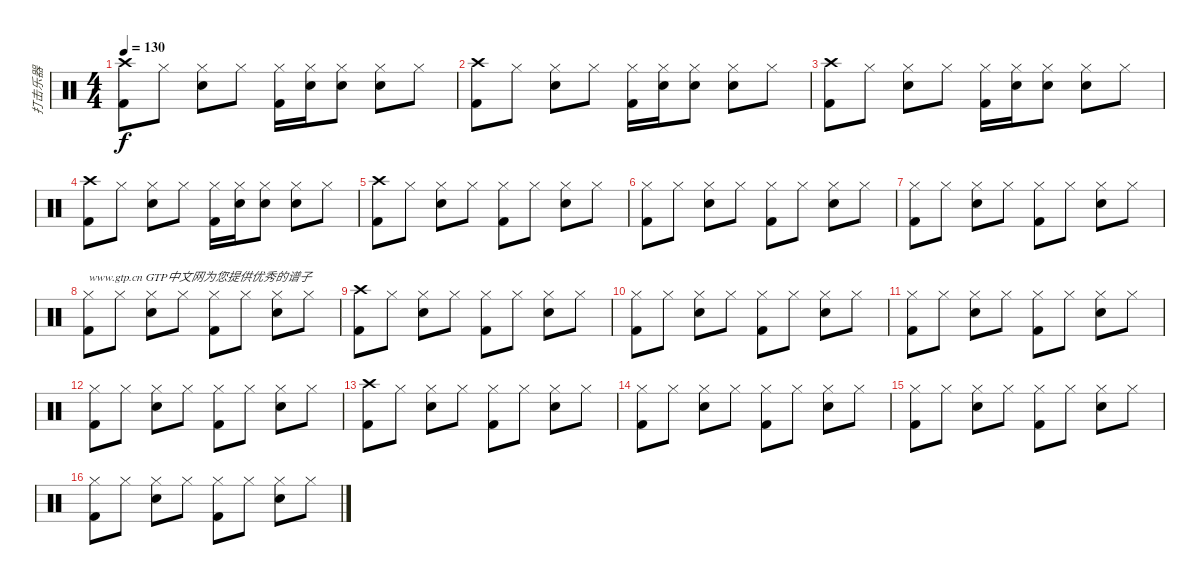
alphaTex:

\track ("打击乐器" "打击乐器") {instrument percussion}
\staff {score}
\articulation defaults
\ts (4 4)
\tempo 130
\clef neutral
\ks c
("Kick (hit) 2" "Crash high (hit)").8{dy f} "Hi-Hat (closed)".8 ("Snare (hit) 2" "Hi-Hat (closed)").8 "Hi-Hat (closed)".8 ("Kick (hit) 2" "Hi-Hat (closed)").16 ("Snare (hit) 2" "Hi-Hat (closed)").16 ("Snare (hit) 2" "Hi-Hat (closed)").8 ("Snare (hit) 2" "Hi-Hat (closed)").8 "Hi-Hat (closed)".8 |
("Kick (hit) 2" "Crash high (hit)").8 "Hi-Hat (closed)".8 ("Snare (hit) 2" "Hi-Hat (closed)").8 "Hi-Hat (closed)".8 ("Kick (hit) 2" "Hi-Hat (closed)").16 ("Snare (hit) 2" "Hi-Hat (closed)").16 ("Snare (hit) 2" "Hi-Hat (closed)").8 ("Snare (hit) 2" "Hi-Hat (closed)").8 "Hi-Hat (closed)".8 |
("Kick (hit) 2" "Crash high (hit)").8 "Hi-Hat (closed)".8 ("Snare (hit) 2" "Hi-Hat (closed)").8 "Hi-Hat (closed)".8 ("Kick (hit) 2" "Hi-Hat (closed)").16 ("Snare (hit) 2" "Hi-Hat (closed)").16 ("Snare (hit) 2" "Hi-Hat (closed)").8 ("Snare (hit) 2" "Hi-Hat (closed)").8 "Hi-Hat (closed)".8 |
("Kick (hit) 2" "Crash high (hit)").8 "Hi-Hat (closed)".8 ("Snare (hit) 2" "Hi-Hat (closed)").8 "Hi-Hat (closed)".8 ("Kick (hit) 2" "Hi-Hat (closed)").16 ("Snare (hit) 2" "Hi-Hat (closed)").16 ("Snare (hit) 2" "Hi-Hat (closed)").8 ("Snare (hit) 2" "Hi-Hat (closed)").8 "Hi-Hat (closed)".8 |
("Kick (hit) 2" "Crash high (hit)").8 "Hi-Hat (closed)".8 ("Snare (hit) 2" "Hi-Hat (closed)").8 "Hi-Hat (closed)".8 ("Kick (hit) 2" "Hi-Hat (closed)").8 "Hi-Hat (closed)".8 ("Snare (hit) 2" "Hi-Hat (closed)").8 "Hi-Hat (closed)".8 |
("Kick (hit) 2" "Hi-Hat (closed)").8 "Hi-Hat (closed)".8 ("Snare (hit) 2" "Hi-Hat (closed)").8 "Hi-Hat (closed)".8 ("Kick (hit) 2" "Hi-Hat (closed)").8 "Hi-Hat (closed)".8 ("Snare (hit) 2" "Hi-Hat (closed)").8 "Hi-Hat (closed)".8 |
("Kick (hit) 2" "Hi-Hat (closed)").8 "Hi-Hat (closed)".8 ("Snare (hit) 2" "Hi-Hat (closed)").8 "Hi-Hat (closed)".8 ("Kick (hit) 2" "Hi-Hat (closed)").8 "Hi-Hat (closed)".8 ("Snare (hit) 2" "Hi-Hat (closed)").8 "Hi-Hat (closed)".8 |
("Kick (hit) 2" "Hi-Hat (closed)").8{txt "www.gtp.cn GTP中文网为您提供优秀的谱子"} "Hi-Hat (closed)".8 ("Snare (hit) 2" "Hi-Hat (closed)").8 "Hi-Hat (closed)".8 ("Kick (hit) 2" "Hi-Hat (closed)").8 "Hi-Hat (closed)".8 ("Snare (hit) 2" "Hi-Hat (closed)").8 "Hi-Hat (closed)".8 |
("Kick (hit) 2" "Crash high (hit)").8 "Hi-Hat (closed)".8 ("Snare (hit) 2" "Hi-Hat (closed)").8 "Hi-Hat (closed)".8 ("Kick (hit) 2" "Hi-Hat (closed)").8 "Hi-Hat (closed)".8 ("Snare (hit) 2" "Hi-Hat (closed)").8 "Hi-Hat (closed)".8 |
("Kick (hit) 2" "Hi-Hat (closed)").8 "Hi-Hat (closed)".8 ("Snare (hit) 2" "Hi-Hat (closed)").8 "Hi-Hat (closed)".8 ("Kick (hit) 2" "Hi-Hat (closed)").8 "Hi-Hat (closed)".8 ("Snare (hit) 2" "Hi-Hat (closed)").8 "Hi-Hat (closed)".8 |
("Kick (hit) 2" "Hi-Hat (closed)").8 "Hi-Hat (closed)".8 ("Snare (hit) 2" "Hi-Hat (closed)").8 "Hi-Hat (closed)".8 ("Kick (hit) 2" "Hi-Hat (closed)").8 "Hi-Hat (closed)".8 ("Snare (hit) 2" "Hi-Hat (closed)").8 "Hi-Hat (closed)".8 |
("Kick (hit) 2" "Hi-Hat (closed)").8 "Hi-Hat (closed)".8 ("Snare (hit) 2" "Hi-Hat (closed)").8 "Hi-Hat (closed)".8 ("Kick (hit) 2" "Hi-Hat (closed)").8 "Hi-Hat (closed)".8 ("Snare (hit) 2" "Hi-Hat (closed)").8 "Hi-Hat (closed)".8 |
("Kick (hit) 2" "Crash high (hit)").8 "Hi-Hat (closed)".8 ("Snare (hit) 2" "Hi-Hat (closed)").8 "Hi-Hat (closed)".8 ("Kick (hit) 2" "Hi-Hat (closed)").8 "Hi-Hat (closed)".8 ("Snare (hit) 2" "Hi-Hat (closed)").8 "Hi-Hat (closed)".8 |
("Kick (hit) 2" "Hi-Hat (closed)").8 "Hi-Hat (closed)".8 ("Snare (hit) 2" "Hi-Hat (closed)").8 "Hi-Hat (closed)".8 ("Kick (hit) 2" "Hi-Hat (closed)").8 "Hi-Hat (closed)".8 ("Snare (hit) 2" "Hi-Hat (closed)").8 "Hi-Hat (closed)".8 |
("Kick (hit) 2" "Hi-Hat (closed)").8 "Hi-Hat (closed)".8 ("Snare (hit) 2" "Hi-Hat (closed)").8 "Hi-Hat (closed)".8 ("Kick (hit) 2" "Hi-Hat (closed)").8 "Hi-Hat (closed)".8 ("Snare (hit) 2" "Hi-Hat (closed)").8 "Hi-Hat (closed)".8 |
("Kick (hit) 2" "Hi-Hat (closed)").8 "Hi-Hat (closed)".8 ("Snare (hit) 2" "Hi-Hat (closed)").8 "Hi-Hat (closed)".8 ("Kick (hit) 2" "Hi-Hat (closed)").8 "Hi-Hat (closed)".8 ("Snare (hit) 2" "Hi-Hat (closed)").8 "Hi-Hat (closed)".8
